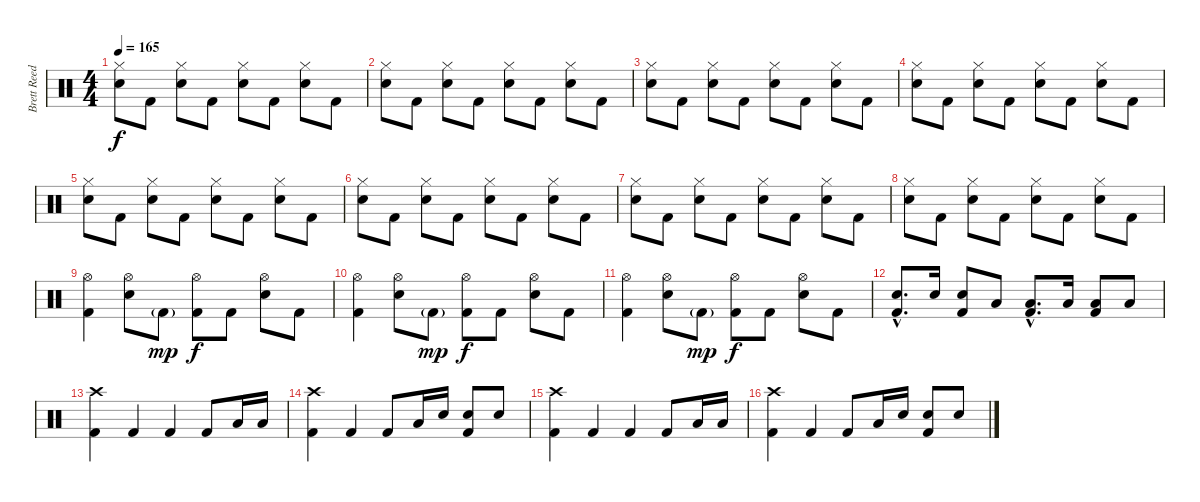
\track ("Brett Reed - Drums" "Brett Reed") {instrument percussion}
\staff {score}
\articulation defaults
\ts (4 4)
\tempo 165
\clef neutral
\ks c
("Hi-Hat (closed)" "Electric Snare (hit)").8{dy f} "Kick (hit) 2".8 ("Hi-Hat (closed)" "Electric Snare (hit)").8 "Kick (hit) 2".8 ("Hi-Hat (closed)" "Electric Snare (hit)").8 "Kick (hit) 2".8 ("Hi-Hat (closed)" "Electric Snare (hit)").8 "Kick (hit) 2".8 |
("Hi-Hat (closed)" "Electric Snare (hit)").8 "Kick (hit) 2".8 ("Hi-Hat (closed)" "Electric Snare (hit)").8 "Kick (hit) 2".8 ("Hi-Hat (closed)" "Electric Snare (hit)").8 "Kick (hit) 2".8 ("Hi-Hat (closed)" "Electric Snare (hit)").8 "Kick (hit) 2".8 |
("Hi-Hat (closed)" "Electric Snare (hit)").8 "Kick (hit) 2".8 ("Hi-Hat (closed)" "Electric Snare (hit)").8 "Kick (hit) 2".8 ("Hi-Hat (closed)" "Electric Snare (hit)").8 "Kick (hit) 2".8 ("Hi-Hat (closed)" "Electric Snare (hit)").8 "Kick (hit) 2".8 |
("Hi-Hat (closed)" "Electric Snare (hit)").8 "Kick (hit) 2".8 ("Hi-Hat (closed)" "Electric Snare (hit)").8 "Kick (hit) 2".8 ("Hi-Hat (closed)" "Electric Snare (hit)").8 "Kick (hit) 2".8 ("Hi-Hat (closed)" "Electric Snare (hit)").8 "Kick (hit) 2".8 |
("Hi-Hat (closed)" "Electric Snare (hit)").8 "Kick (hit) 2".8 ("Hi-Hat (closed)" "Electric Snare (hit)").8 "Kick (hit) 2".8 ("Hi-Hat (closed)" "Electric Snare (hit)").8 "Kick (hit) 2".8 ("Hi-Hat (closed)" "Electric Snare (hit)").8 "Kick (hit) 2".8 |
("Hi-Hat (closed)" "Electric Snare (hit)").8 "Kick (hit) 2".8 ("Hi-Hat (closed)" "Electric Snare (hit)").8 "Kick (hit) 2".8 ("Hi-Hat (closed)" "Electric Snare (hit)").8 "Kick (hit) 2".8 ("Hi-Hat (closed)" "Electric Snare (hit)").8 "Kick (hit) 2".8 |
("Hi-Hat (closed)" "Electric Snare (hit)").8 "Kick (hit) 2".8 ("Hi-Hat (closed)" "Electric Snare (hit)").8 "Kick (hit) 2".8 ("Hi-Hat (closed)" "Electric Snare (hit)").8 "Kick (hit) 2".8 ("Hi-Hat (closed)" "Electric Snare (hit)").8 "Kick (hit) 2".8 |
("Hi-Hat (closed)" "Electric Snare (hit)").8 "Kick (hit) 2".8 ("Hi-Hat (closed)" "Electric Snare (hit)").8 "Kick (hit) 2".8 ("Hi-Hat (closed)" "Electric Snare (hit)").8 "Kick (hit) 2".8 ("Hi-Hat (closed)" "Electric Snare (hit)").8 "Kick (hit) 2".8 |
("Hi-Hat (open)" "Kick (hit) 2").4 ("Hi-Hat (open)" "Electric Snare (hit)").8 "Kick (hit) 2"{g}.8{dy mp} ("Hi-Hat (open)" "Kick (hit) 2").8{dy f} "Kick (hit) 2".8 ("Hi-Hat (open)" "Electric Snare (hit)").8 "Kick (hit) 2".8 |
("Hi-Hat (open)" "Kick (hit) 2").4 ("Hi-Hat (open)" "Electric Snare (hit)").8 "Kick (hit) 2"{g}.8{dy mp} ("Hi-Hat (open)" "Kick (hit) 2").8{dy f} "Kick (hit) 2".8 ("Hi-Hat (open)" "Electric Snare (hit)").8 "Kick (hit) 2".8 |
("Hi-Hat (open)" "Kick (hit) 2").4 ("Hi-Hat (open)" "Electric Snare (hit)").8 "Kick (hit) 2"{g}.8{dy mp} ("Hi-Hat (open)" "Kick (hit) 2").8{dy f} "Kick (hit) 2".8 ("Hi-Hat (open)" "Electric Snare (hit)").8 "Kick (hit) 2".8 |
("Electric Snare (hit)"{hac} "Kick (hit) 2"{hac}).8{d} "Electric Snare (hit)".16 ("Electric Snare (hit)" "Kick (hit) 2").8 "Low Tom (hit)".8 ("Low Tom (hit)"{hac} "Kick (hit) 2"{hac}).8{d} "Low Tom (hit)".16 ("Low Tom (hit)" "Kick (hit) 2").8 "Low Tom (hit)".8 |
("Crash high (hit)" "Kick (hit) 2").4 "Kick (hit) 2".4 "Kick (hit) 2".4 "Kick (hit) 2".8 "Low Tom (hit)".16 "Low Tom (hit)".16 |
("Crash high (hit)" "Kick (hit) 2").4 "Kick (hit) 2".4 "Kick (hit) 2".8 "Low Tom (hit)".16 "Electric Snare (hit)".16 ("Electric Snare (hit)" "Kick (hit) 2").8 "Electric Snare (hit)".8 |
("Crash high (hit)" "Kick (hit) 2").4 "Kick (hit) 2".4 "Kick (hit) 2".4 "Kick (hit) 2".8 "Low Tom (hit)".16 "Low Tom (hit)".16 |
("Crash high (hit)" "Kick (hit) 2").4 "Kick (hit) 2".4 "Kick (hit) 2".8 "Low Tom (hit)".16 "Electric Snare (hit)".16 ("Electric Snare (hit)" "Kick (hit) 2").8 "Electric Snare (hit)".8
